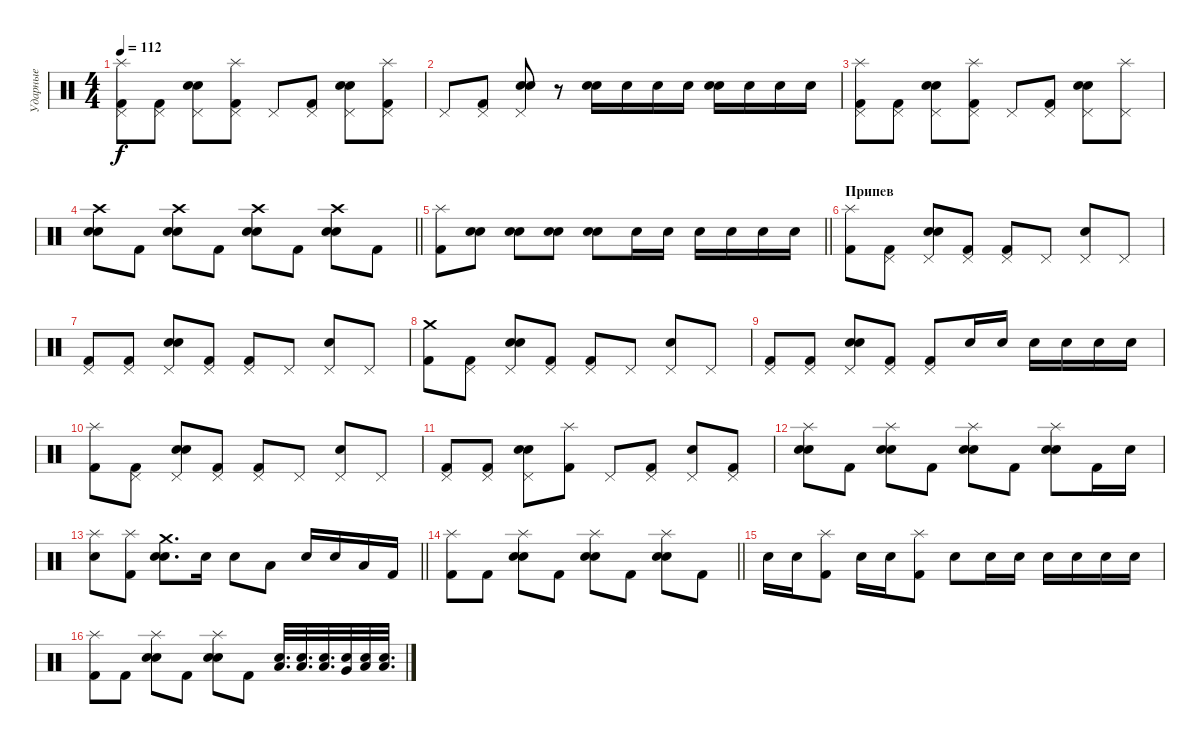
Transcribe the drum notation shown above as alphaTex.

\track ("Ударные" "Ударные") {instrument percussion}
\staff {score}
\articulation defaults
\ts (4 4)
\tempo 112
\clef neutral
\ks c
("Splash (hit)" "Pedal Hi-Hat (hit)" "Kick (hit) 2").8{dy f} ("Pedal Hi-Hat (hit)" "Kick (hit) 2").8 ("Pedal Hi-Hat (hit)" "Electric Snare (hit)" "Snare (hit) 2").8 ("Splash (hit)" "Pedal Hi-Hat (hit)" "Kick (hit) 2").8 "Pedal Hi-Hat (hit)".8 ("Pedal Hi-Hat (hit)" "Kick (hit) 2").8 ("Pedal Hi-Hat (hit)" "Electric Snare (hit)" "Snare (hit) 2").8 ("Splash (hit)" "Pedal Hi-Hat (hit)" "Kick (hit) 2").8 |
"Pedal Hi-Hat (hit)".8 ("Pedal Hi-Hat (hit)" "Kick (hit) 2").8 ("Pedal Hi-Hat (hit)" "Electric Snare (hit)" "Snare (hit) 2").8 r.8 ("Electric Snare (hit)" "Snare (hit) 2").16 "Electric Snare (hit)".16 "Electric Snare (hit)".16 "Electric Snare (hit)".16 ("Electric Snare (hit)" "Snare (hit) 2").16 "Electric Snare (hit)".16 "Electric Snare (hit)".16 "Electric Snare (hit)".16 |
("Splash (hit)" "Pedal Hi-Hat (hit)" "Kick (hit) 2").8 ("Pedal Hi-Hat (hit)" "Kick (hit) 2").8 ("Pedal Hi-Hat (hit)" "Electric Snare (hit)" "Snare (hit) 2").8 ("Splash (hit)" "Pedal Hi-Hat (hit)" "Kick (hit) 2").8 "Pedal Hi-Hat (hit)".8 ("Pedal Hi-Hat (hit)" "Kick (hit) 2").8 ("Pedal Hi-Hat (hit)" "Electric Snare (hit)" "Snare (hit) 2").8 ("Splash (hit)" "Pedal Hi-Hat (hit)").8 |
\barLineRight lightlight
("Crash high (hit)" "Electric Snare (hit)" "Snare (hit) 2").8 "Kick (hit) 2".8 ("Crash high (hit)" "Electric Snare (hit)" "Snare (hit) 2").8 "Kick (hit) 2".8 ("Crash high (hit)" "Electric Snare (hit)" "Snare (hit) 2").8 "Kick (hit) 2".8 ("Crash high (hit)" "Electric Snare (hit)" "Snare (hit) 2").8 "Kick (hit) 2".8 |
\barLineRight lightlight
("Splash (hit)" "Kick (hit) 2").8 ("Electric Snare (hit)" "Snare (hit) 2").8 ("Electric Snare (hit)" "Snare (hit) 2").8 ("Electric Snare (hit)" "Snare (hit) 2").8 ("Electric Snare (hit)" "Snare (hit) 2").8 "Electric Snare (hit)".16 "Electric Snare (hit)".16 "Electric Snare (hit)".16 "Electric Snare (hit)".16 "Electric Snare (hit)".16 "Electric Snare (hit)".16 |
\section ("" "Припев")
("Splash (hit)" "Kick (hit) 2").8 ("Pedal Hi-Hat (hit)" "Kick (hit) 2").8 ("Pedal Hi-Hat (hit)" "Electric Snare (hit)" "Snare (hit) 2").8 ("Pedal Hi-Hat (hit)" "Kick (hit) 2").8 ("Pedal Hi-Hat (hit)" "Kick (hit) 2").8 "Pedal Hi-Hat (hit)".8 ("Pedal Hi-Hat (hit)" "Electric Snare (hit)").8 "Pedal Hi-Hat (hit)".8 |
("Pedal Hi-Hat (hit)" "Kick (hit) 2").8 ("Pedal Hi-Hat (hit)" "Kick (hit) 2").8 ("Pedal Hi-Hat (hit)" "Electric Snare (hit)" "Snare (hit) 2").8 ("Pedal Hi-Hat (hit)" "Kick (hit) 2").8 ("Pedal Hi-Hat (hit)" "Kick (hit) 2").8 "Pedal Hi-Hat (hit)".8 ("Pedal Hi-Hat (hit)" "Electric Snare (hit)").8 "Pedal Hi-Hat (hit)".8 |
("Crash medium (hit)" "Kick (hit) 2").8 ("Pedal Hi-Hat (hit)" "Kick (hit) 2").8 ("Pedal Hi-Hat (hit)" "Electric Snare (hit)" "Snare (hit) 2").8 ("Pedal Hi-Hat (hit)" "Kick (hit) 2").8 ("Pedal Hi-Hat (hit)" "Kick (hit) 2").8 "Pedal Hi-Hat (hit)".8 ("Pedal Hi-Hat (hit)" "Electric Snare (hit)").8 "Pedal Hi-Hat (hit)".8 |
("Pedal Hi-Hat (hit)" "Kick (hit) 2").8 ("Pedal Hi-Hat (hit)" "Kick (hit) 2").8 ("Pedal Hi-Hat (hit)" "Electric Snare (hit)" "Snare (hit) 2").8 ("Pedal Hi-Hat (hit)" "Kick (hit) 2").8 ("Pedal Hi-Hat (hit)" "Kick (hit) 2").8 "Electric Snare (hit)".16 "Electric Snare (hit)".16 "Electric Snare (hit)".16 "Electric Snare (hit)".16 "Electric Snare (hit)".16 "Electric Snare (hit)".16 |
("Splash (hit)" "Kick (hit) 2").8 ("Pedal Hi-Hat (hit)" "Kick (hit) 2").8 ("Pedal Hi-Hat (hit)" "Electric Snare (hit)" "Snare (hit) 2").8 ("Pedal Hi-Hat (hit)" "Kick (hit) 2").8 ("Pedal Hi-Hat (hit)" "Kick (hit) 2").8 "Pedal Hi-Hat (hit)".8 ("Pedal Hi-Hat (hit)" "Electric Snare (hit)").8 "Pedal Hi-Hat (hit)".8 |
("Pedal Hi-Hat (hit)" "Kick (hit) 2").8 ("Pedal Hi-Hat (hit)" "Kick (hit) 2").8 ("Pedal Hi-Hat (hit)" "Electric Snare (hit)" "Snare (hit) 2").8 ("Splash (hit)" "Kick (hit) 2").8 "Pedal Hi-Hat (hit)".8 ("Pedal Hi-Hat (hit)" "Kick (hit) 2").8 ("Pedal Hi-Hat (hit)" "Electric Snare (hit)").8 ("Pedal Hi-Hat (hit)" "Kick (hit) 2").8 |
("Splash (hit)" "Electric Snare (hit)" "Snare (hit) 2").8 "Kick (hit) 2".8 ("Splash (hit)" "Electric Snare (hit)" "Snare (hit) 2").8 "Kick (hit) 2".8 ("Splash (hit)" "Electric Snare (hit)" "Snare (hit) 2").8 "Kick (hit) 2".8 ("Splash (hit)" "Electric Snare (hit)" "Snare (hit) 2").8 "Kick (hit) 2".16 "Electric Snare (hit)".16 |
\barLineRight lightlight
("Splash (hit)" "Electric Snare (hit)").8 ("Splash (hit)" "Kick (hit) 2").8 ("Crash medium (hit)" "Electric Snare (hit)" "Snare (hit) 2").8{d} "Electric Snare (hit)".16 "Electric Snare (hit)".8 "Low Floor Tom (hit)".8 "Electric Snare (hit)".16 "Electric Snare (hit)".16 "Low Floor Tom (hit)".16 "Kick (hit) 2".16 |
\barLineRight lightlight
("Splash (hit)" "Kick (hit) 2").8 "Kick (hit) 2".8 ("Splash (hit)" "Electric Snare (hit)" "Snare (hit) 2").8 "Kick (hit) 2".8 ("Splash (hit)" "Electric Snare (hit)" "Snare (hit) 2").8 "Kick (hit) 2".8 ("Splash (hit)" "Electric Snare (hit)" "Snare (hit) 2").8 "Kick (hit) 2".8 |
"Electric Snare (hit)".16 "Electric Snare (hit)".16 ("Splash (hit)" "Kick (hit) 2").8 "Electric Snare (hit)".16 "Electric Snare (hit)".16 ("Splash (hit)" "Kick (hit) 2").8 "Electric Snare (hit)".8 "Electric Snare (hit)".16 "Electric Snare (hit)".16 "Electric Snare (hit)".16 "Electric Snare (hit)".16 "Electric Snare (hit)".16 "Electric Snare (hit)".16 |
("Splash (hit)" "Kick (hit) 2").8 "Kick (hit) 2".8 ("Splash (hit)" "Electric Snare (hit)" "Snare (hit) 2").8 "Kick (hit) 2".8 ("Splash (hit)" "Electric Snare (hit)" "Snare (hit) 2").8 "Kick (hit) 2".8 ("Low Tom (hit)" "Electric Snare (hit)").32{d} ("Low Tom (hit)" "Electric Snare (hit)").32{d} ("Low Tom (hit)" "Electric Snare (hit)").32{d} ("Very Low Tom (hit)" "Electric Snare (hit)").32 ("Low Floor Tom (hit)" "Electric Snare (hit)").32 ("Low Floor Tom (hit)" "Electric Snare (hit)").32{d}
